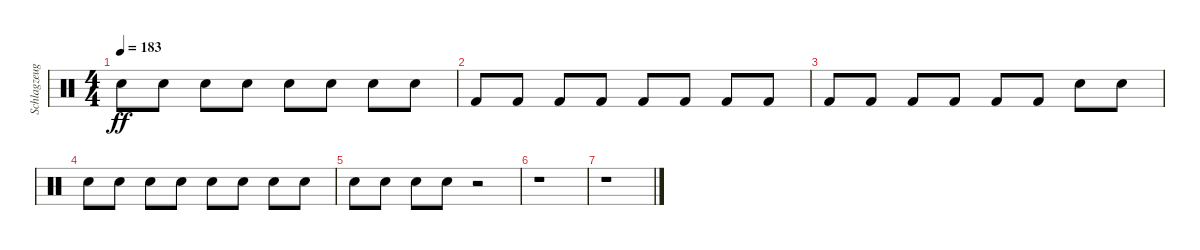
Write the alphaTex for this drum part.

\track ("Schlagzeug - Bela B." "Schlagzeug") {instrument percussion}
\staff {score}
\articulation defaults
\ts (4 4)
\tempo 183
\clef neutral
\ks c "Electric Snare (hit)".8{dy ff} "Electric Snare (hit)".8 "Electric Snare (hit)".8 "Electric Snare (hit)".8 "Electric Snare (hit)".8 "Electric Snare (hit)".8 "Snare (hit) 2".8 "Snare (hit) 2".8
|
"Kick (hit) 2".8 "Kick (hit) 2".8 "Kick (hit) 2".8 "Kick (hit) 2".8 "Kick (hit) 2".8 "Kick (hit) 2".8 "Kick (hit) 2".8 "Kick (hit) 2".8 |
"Kick (hit) 2".8 "Kick (hit) 2".8 "Kick (hit) 2".8 "Kick (hit) 2".8 "Kick (hit) 2".8 "Kick (hit) 2".8 "Snare (hit) 2".8 "Snare (hit) 2".8 |
"Electric Snare (hit)".8 "Electric Snare (hit)".8 "Electric Snare (hit)".8 "Electric Snare (hit)".8 "Electric Snare (hit)".8 "Electric Snare (hit)".8 "Electric Snare (hit)".8 "Electric Snare (hit)".8 |
"Electric Snare (hit)".8 "Electric Snare (hit)".8 "Electric Snare (hit)".8 "Electric Snare (hit)".8 r.2 |
r.1 |
r.1
